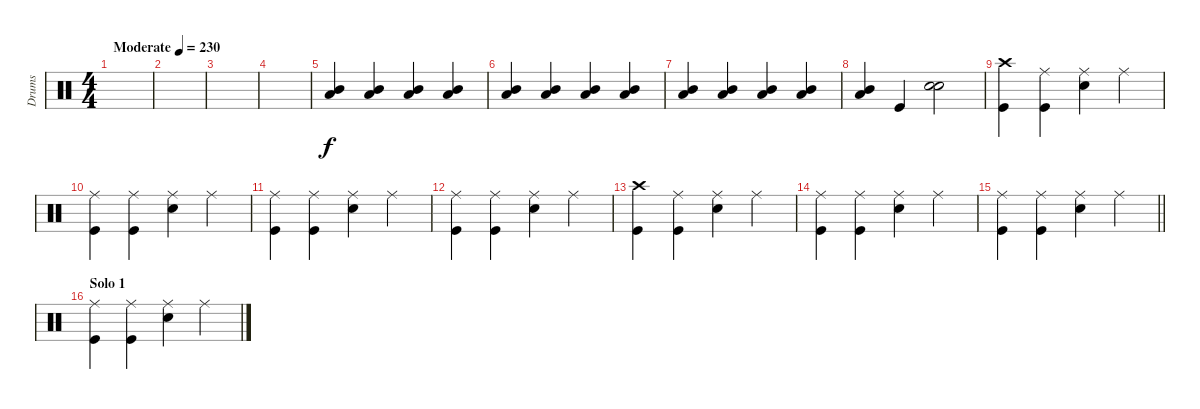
\track ("Drums" "Drums") {instrument percussion}
\staff {score}
\articulation defaults
\ts (4 4)
\tempo (230 "Moderate")
\clef neutral
\ks c
|
|
|
|
("Low Tom (hit)" "Mid Tom (hit)").4 ("Low Tom (hit)" "Mid Tom (hit)").4 ("Low Tom (hit)" "Mid Tom (hit)").4 ("Low Tom (hit)" "Mid Tom (hit)").4 |
("Low Tom (hit)" "Mid Tom (hit)").4 ("Low Tom (hit)" "Mid Tom (hit)").4 ("Low Tom (hit)" "Mid Tom (hit)").4 ("Low Tom (hit)" "Mid Tom (hit)").4 |
("Low Tom (hit)" "Mid Tom (hit)").4 ("Low Tom (hit)" "Mid Tom (hit)").4 ("Low Tom (hit)" "Mid Tom (hit)").4 ("Low Tom (hit)" "Mid Tom (hit)").4 |
("Low Tom (hit)" "Mid Tom (hit)").4 "Kick (hit)".4 ("Snare (hit) 2" "Snare (hit) 2").2 |
("Crash high (hit)" "Kick (hit)").4 ("Ride (middle)" "Kick (hit)").4 ("Ride (middle)" "Snare (hit) 2").4 "Ride (middle)".4 |
("Ride (middle)" "Kick (hit)").4 ("Ride (middle)" "Kick (hit)").4 ("Ride (middle)" "Snare (hit) 2").4 "Ride (middle)".4 |
("Ride (middle)" "Kick (hit)").4 ("Ride (middle)" "Kick (hit)").4 ("Ride (middle)" "Snare (hit) 2").4 "Ride (middle)".4 |
("Ride (middle)" "Kick (hit)").4 ("Ride (middle)" "Kick (hit)").4 ("Ride (middle)" "Snare (hit) 2").4 "Ride (middle)".4 |
("Crash high (hit)" "Kick (hit)").4 ("Ride (middle)" "Kick (hit)").4 ("Ride (middle)" "Snare (hit) 2").4 "Ride (middle)".4 |
("Ride (middle)" "Kick (hit)").4 ("Ride (middle)" "Kick (hit)").4 ("Ride (middle)" "Snare (hit) 2").4 "Ride (middle)".4 |
\barLineRight lightlight
("Ride (middle)" "Kick (hit)").4 ("Ride (middle)" "Kick (hit)").4 ("Ride (middle)" "Snare (hit) 2").4 "Ride (middle)".4 |
\section ("" "Solo 1")
("Ride (middle)" "Kick (hit)").4 ("Ride (middle)" "Kick (hit)").4 ("Ride (middle)" "Snare (hit) 2").4 "Ride (middle)".4
